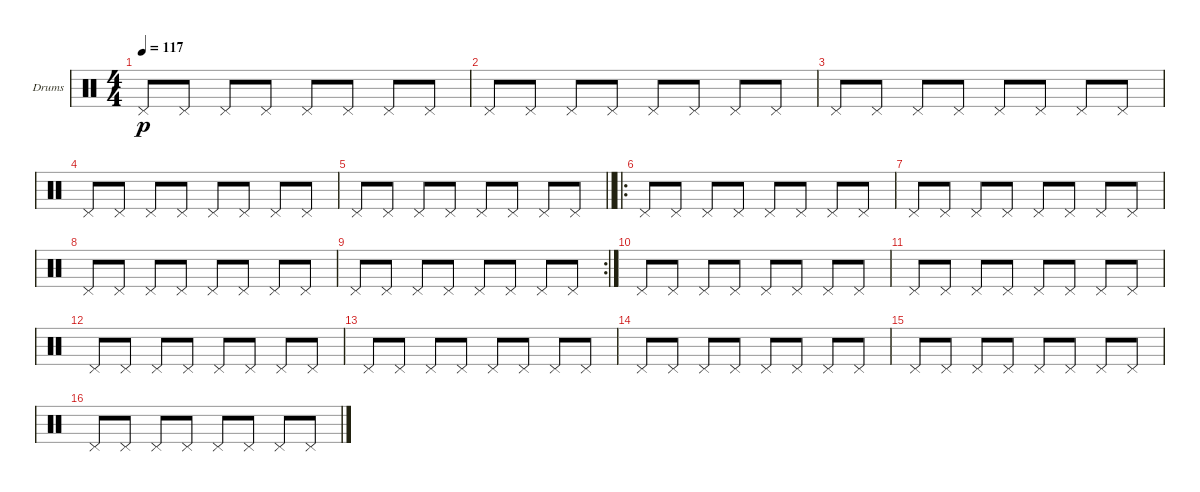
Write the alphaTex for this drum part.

\bracketExtendMode groupsimilarinstruments
\firstSystemTrackNameOrientation horizontal
\otherSystemsTrackNameOrientation horizontal
\track ("Dominic Hit hat pedal" "Drums") {instrument percussion}
\staff {score}
\articulation defaults
\ts (4 4)
\tempo 117
\clef neutral
\ks c "Pedal Hi-Hat (hit)".8{dy p} "Pedal Hi-Hat (hit)".8 "Pedal Hi-Hat (hit)".8 "Pedal Hi-Hat (hit)".8 "Pedal Hi-Hat (hit)".8 "Pedal Hi-Hat (hit)".8 "Pedal Hi-Hat (hit)".8 "Pedal Hi-Hat (hit)".8
|
"Pedal Hi-Hat (hit)".8 "Pedal Hi-Hat (hit)".8 "Pedal Hi-Hat (hit)".8 "Pedal Hi-Hat (hit)".8 "Pedal Hi-Hat (hit)".8 "Pedal Hi-Hat (hit)".8 "Pedal Hi-Hat (hit)".8 "Pedal Hi-Hat (hit)".8 |
"Pedal Hi-Hat (hit)".8 "Pedal Hi-Hat (hit)".8 "Pedal Hi-Hat (hit)".8 "Pedal Hi-Hat (hit)".8 "Pedal Hi-Hat (hit)".8 "Pedal Hi-Hat (hit)".8 "Pedal Hi-Hat (hit)".8 "Pedal Hi-Hat (hit)".8 |
"Pedal Hi-Hat (hit)".8 "Pedal Hi-Hat (hit)".8 "Pedal Hi-Hat (hit)".8 "Pedal Hi-Hat (hit)".8 "Pedal Hi-Hat (hit)".8 "Pedal Hi-Hat (hit)".8 "Pedal Hi-Hat (hit)".8 "Pedal Hi-Hat (hit)".8 |
\barLineRight lightlight "Pedal Hi-Hat (hit)".8 "Pedal Hi-Hat (hit)".8 "Pedal Hi-Hat (hit)".8 "Pedal Hi-Hat (hit)".8 "Pedal Hi-Hat (hit)".8 "Pedal Hi-Hat (hit)".8 "Pedal Hi-Hat (hit)".8 "Pedal Hi-Hat (hit)".8
|
\ro "Pedal Hi-Hat (hit)".8 "Pedal Hi-Hat (hit)".8 "Pedal Hi-Hat (hit)".8 "Pedal Hi-Hat (hit)".8 "Pedal Hi-Hat (hit)".8 "Pedal Hi-Hat (hit)".8 "Pedal Hi-Hat (hit)".8 "Pedal Hi-Hat (hit)".8
|
"Pedal Hi-Hat (hit)".8 "Pedal Hi-Hat (hit)".8 "Pedal Hi-Hat (hit)".8 "Pedal Hi-Hat (hit)".8 "Pedal Hi-Hat (hit)".8 "Pedal Hi-Hat (hit)".8 "Pedal Hi-Hat (hit)".8 "Pedal Hi-Hat (hit)".8 |
"Pedal Hi-Hat (hit)".8 "Pedal Hi-Hat (hit)".8 "Pedal Hi-Hat (hit)".8 "Pedal Hi-Hat (hit)".8 "Pedal Hi-Hat (hit)".8 "Pedal Hi-Hat (hit)".8 "Pedal Hi-Hat (hit)".8 "Pedal Hi-Hat (hit)".8 |
\rc 2 "Pedal Hi-Hat (hit)".8 "Pedal Hi-Hat (hit)".8 "Pedal Hi-Hat (hit)".8 "Pedal Hi-Hat (hit)".8 "Pedal Hi-Hat (hit)".8 "Pedal Hi-Hat (hit)".8 "Pedal Hi-Hat (hit)".8 "Pedal Hi-Hat (hit)".8
|
"Pedal Hi-Hat (hit)".8 "Pedal Hi-Hat (hit)".8 "Pedal Hi-Hat (hit)".8 "Pedal Hi-Hat (hit)".8 "Pedal Hi-Hat (hit)".8 "Pedal Hi-Hat (hit)".8 "Pedal Hi-Hat (hit)".8 "Pedal Hi-Hat (hit)".8 |
"Pedal Hi-Hat (hit)".8 "Pedal Hi-Hat (hit)".8 "Pedal Hi-Hat (hit)".8 "Pedal Hi-Hat (hit)".8 "Pedal Hi-Hat (hit)".8 "Pedal Hi-Hat (hit)".8 "Pedal Hi-Hat (hit)".8 "Pedal Hi-Hat (hit)".8 |
"Pedal Hi-Hat (hit)".8 "Pedal Hi-Hat (hit)".8 "Pedal Hi-Hat (hit)".8 "Pedal Hi-Hat (hit)".8 "Pedal Hi-Hat (hit)".8 "Pedal Hi-Hat (hit)".8 "Pedal Hi-Hat (hit)".8 "Pedal Hi-Hat (hit)".8 |
"Pedal Hi-Hat (hit)".8 "Pedal Hi-Hat (hit)".8 "Pedal Hi-Hat (hit)".8 "Pedal Hi-Hat (hit)".8 "Pedal Hi-Hat (hit)".8 "Pedal Hi-Hat (hit)".8 "Pedal Hi-Hat (hit)".8 "Pedal Hi-Hat (hit)".8 |
"Pedal Hi-Hat (hit)".8 "Pedal Hi-Hat (hit)".8 "Pedal Hi-Hat (hit)".8 "Pedal Hi-Hat (hit)".8 "Pedal Hi-Hat (hit)".8 "Pedal Hi-Hat (hit)".8 "Pedal Hi-Hat (hit)".8 "Pedal Hi-Hat (hit)".8 |
"Pedal Hi-Hat (hit)".8 "Pedal Hi-Hat (hit)".8 "Pedal Hi-Hat (hit)".8 "Pedal Hi-Hat (hit)".8 "Pedal Hi-Hat (hit)".8 "Pedal Hi-Hat (hit)".8 "Pedal Hi-Hat (hit)".8 "Pedal Hi-Hat (hit)".8 |
"Pedal Hi-Hat (hit)".8 "Pedal Hi-Hat (hit)".8 "Pedal Hi-Hat (hit)".8 "Pedal Hi-Hat (hit)".8 "Pedal Hi-Hat (hit)".8 "Pedal Hi-Hat (hit)".8 "Pedal Hi-Hat (hit)".8 "Pedal Hi-Hat (hit)".8
